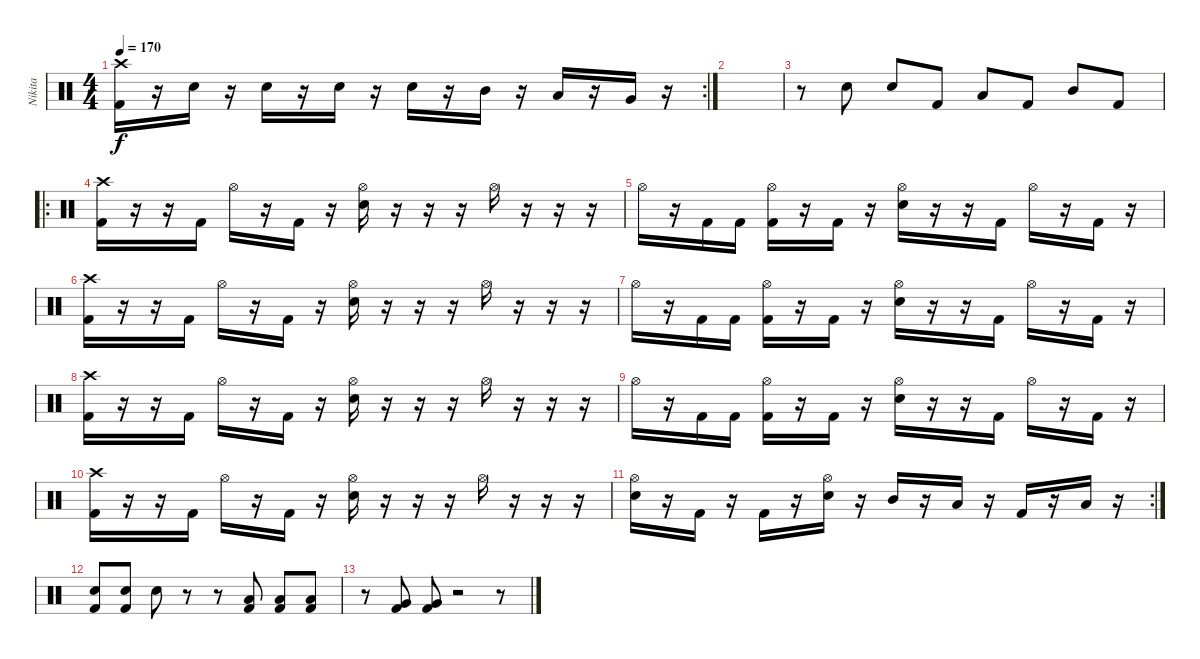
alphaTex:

\track ("Nikita" "Nikita") {instrument percussion}
\staff {score}
\articulation defaults
\rc 2
\ts (4 4)
\tempo 170
\clef neutral
\ks c
("Crash high (hit)" "Kick (hit) 2").16{dy f} r.16 "Electric Snare (hit)".16 r.16 "Electric Snare (hit)".16 r.16 "Electric Snare (hit)".16 r.16 "Electric Snare (hit)".16 r.16 "Mid Tom (hit)".16 r.16 "Low Tom (hit)".16 r.16 "Very Low Tom (hit)".16 r.16 |
|
r.8 "Electric Snare (hit)".8 "Electric Snare (hit)".8 "Kick (hit) 2".8 "Low Tom (hit)".8 "Kick (hit) 2".8 "Mid Tom (hit)".8 "Kick (hit) 2".8 |
\ro
("Crash high (hit)" "Kick (hit) 2").16 r.16 r.16 "Kick (hit) 2".16 "Hi-Hat (open)".16 r.16 "Kick (hit) 2".16 r.16 ("Hi-Hat (open)" "Electric Snare (hit)").16 r.16 r.16 r.16 "Hi-Hat (open)".16 r.16 r.16 r.16 |
"Hi-Hat (open)".16 r.16 "Kick (hit) 2".16 "Kick (hit) 2".16 ("Hi-Hat (open)" "Kick (hit) 2").16 r.16 "Kick (hit) 2".16 r.16 ("Hi-Hat (open)" "Electric Snare (hit)").16 r.16 r.16 "Kick (hit) 2".16 "Hi-Hat (open)".16 r.16 "Kick (hit) 2".16 r.16 |
("Crash high (hit)" "Kick (hit) 2").16 r.16 r.16 "Kick (hit) 2".16 "Hi-Hat (open)".16 r.16 "Kick (hit) 2".16 r.16 ("Hi-Hat (open)" "Electric Snare (hit)").16 r.16 r.16 r.16 "Hi-Hat (open)".16 r.16 r.16 r.16 |
"Hi-Hat (open)".16 r.16 "Kick (hit) 2".16 "Kick (hit) 2".16 ("Hi-Hat (open)" "Kick (hit) 2").16 r.16 "Kick (hit) 2".16 r.16 ("Hi-Hat (open)" "Electric Snare (hit)").16 r.16 r.16 "Kick (hit) 2".16 "Hi-Hat (open)".16 r.16 "Kick (hit) 2".16 r.16 |
("Crash high (hit)" "Kick (hit) 2").16 r.16 r.16 "Kick (hit) 2".16 "Hi-Hat (open)".16 r.16 "Kick (hit) 2".16 r.16 ("Hi-Hat (open)" "Electric Snare (hit)").16 r.16 r.16 r.16 "Hi-Hat (open)".16 r.16 r.16 r.16 |
"Hi-Hat (open)".16 r.16 "Kick (hit) 2".16 "Kick (hit) 2".16 ("Hi-Hat (open)" "Kick (hit) 2").16 r.16 "Kick (hit) 2".16 r.16 ("Hi-Hat (open)" "Electric Snare (hit)").16 r.16 r.16 "Kick (hit) 2".16 "Hi-Hat (open)".16 r.16 "Kick (hit) 2".16 r.16 |
("Crash high (hit)" "Kick (hit) 2").16 r.16 r.16 "Kick (hit) 2".16 "Hi-Hat (open)".16 r.16 "Kick (hit) 2".16 r.16 ("Hi-Hat (open)" "Electric Snare (hit)").16 r.16 r.16 r.16 "Hi-Hat (open)".16 r.16 r.16 r.16 |
\rc 2
("Hi-Hat (open)" "Electric Snare (hit)").16 r.16 "Kick (hit) 2".16 r.16 "Kick (hit) 2".16 r.16 ("Hi-Hat (open)" "Electric Snare (hit)").16 r.16 "Mid Tom (hit)".16 r.16 "Low Tom (hit)".16 r.16 "Kick (hit) 2".16 r.16 "Low Tom (hit)".16 r.16 |
("Electric Snare (hit)" "Kick (hit) 2").8 ("Electric Snare (hit)" "Kick (hit) 2").8 "Electric Snare (hit)".8 r.8 r.8 ("Low Tom (hit)" "Kick (hit) 2").8 ("Low Tom (hit)" "Kick (hit) 2").8 ("Low Tom (hit)" "Kick (hit) 2").8 |
r.8 ("Very Low Tom (hit)" "Kick (hit) 2").8 ("Very Low Tom (hit)" "Kick (hit) 2").8 r.2 r.8
